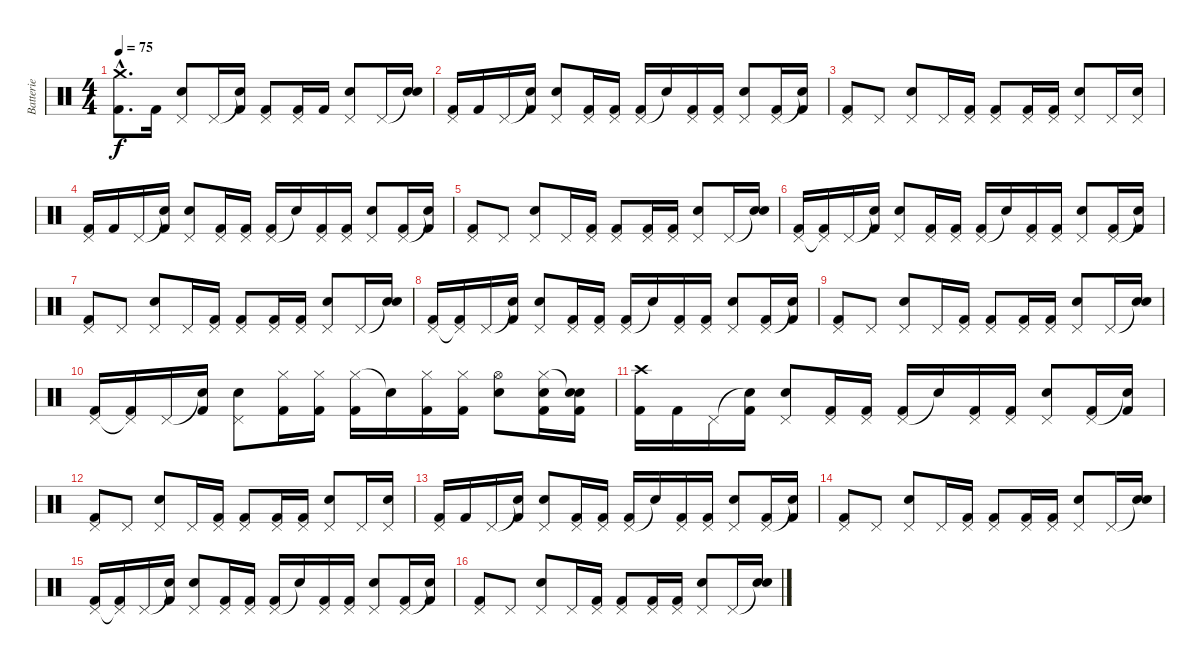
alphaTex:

\track ("Batterie" "Batterie") {instrument percussion}
\staff {score}
\articulation defaults
\ts (4 4)
\tempo 75
\clef neutral
\ks c
("Crash medium (hit)"{hac} "Kick (hit) 2"{hac}).8{d dy f} "Kick (hit) 2".16 ("Pedal Hi-Hat (hit)" "Electric Snare (hit)").8 "Pedal Hi-Hat (hit)".16 ("Snare (hit)"{t} "Kick (hit) 2").16 ("Pedal Hi-Hat (hit)" "Kick (hit) 2").8 ("Pedal Hi-Hat (hit)" "Kick (hit) 2").16 "Kick (hit) 2".16 ("Pedal Hi-Hat (hit)" "Electric Snare (hit)").8 "Pedal Hi-Hat (hit)".16 ("Snare (hit)"{t} "Electric Snare (hit)").16 |
("Pedal Hi-Hat (hit)" "Kick (hit) 2").16 "Kick (hit) 2".16 "Pedal Hi-Hat (hit)".16 ("Snare (hit)"{t} "Kick (hit) 2").16 ("Pedal Hi-Hat (hit)" "Electric Snare (hit)").8 ("Pedal Hi-Hat (hit)" "Kick (hit) 2").16 ("Pedal Hi-Hat (hit)" "Kick (hit) 2").16 ("Pedal Hi-Hat (hit)" "Kick (hit) 2").16 "Snare (hit)"{t}.16 ("Pedal Hi-Hat (hit)" "Kick (hit) 2").16 ("Pedal Hi-Hat (hit)" "Kick (hit) 2").16 ("Pedal Hi-Hat (hit)" "Electric Snare (hit)").8 ("Pedal Hi-Hat (hit)" "Kick (hit) 2").16 ("Snare (hit)"{t} "Kick (hit) 2").16 |
("Pedal Hi-Hat (hit)" "Kick (hit) 2").8 "Pedal Hi-Hat (hit)".8 ("Pedal Hi-Hat (hit)" "Electric Snare (hit)").8 "Pedal Hi-Hat (hit)".16 ("Pedal Hi-Hat (hit)" "Kick (hit) 2").16 ("Pedal Hi-Hat (hit)" "Kick (hit) 2").8 ("Pedal Hi-Hat (hit)" "Kick (hit) 2").16 ("Pedal Hi-Hat (hit)" "Kick (hit) 2").16 ("Pedal Hi-Hat (hit)" "Electric Snare (hit)").8 "Pedal Hi-Hat (hit)".16 ("Pedal Hi-Hat (hit)" "Electric Snare (hit)").16 |
("Pedal Hi-Hat (hit)" "Kick (hit) 2").16 "Kick (hit) 2".16 "Pedal Hi-Hat (hit)".16 ("Snare (hit)"{t} "Kick (hit) 2").16 ("Pedal Hi-Hat (hit)" "Electric Snare (hit)").8 ("Pedal Hi-Hat (hit)" "Kick (hit) 2").16 ("Pedal Hi-Hat (hit)" "Kick (hit) 2").16 ("Pedal Hi-Hat (hit)" "Kick (hit) 2").16 "Snare (hit)"{t}.16 ("Pedal Hi-Hat (hit)" "Kick (hit) 2").16 ("Pedal Hi-Hat (hit)" "Kick (hit) 2").16 ("Pedal Hi-Hat (hit)" "Electric Snare (hit)").8 ("Pedal Hi-Hat (hit)" "Kick (hit) 2").16 ("Snare (hit)"{t} "Kick (hit) 2").16 |
("Pedal Hi-Hat (hit)" "Kick (hit) 2").8 "Pedal Hi-Hat (hit)".8 ("Pedal Hi-Hat (hit)" "Electric Snare (hit)").8 "Pedal Hi-Hat (hit)".16 ("Pedal Hi-Hat (hit)" "Kick (hit) 2").16 ("Pedal Hi-Hat (hit)" "Kick (hit) 2").8 ("Pedal Hi-Hat (hit)" "Kick (hit) 2").16 ("Pedal Hi-Hat (hit)" "Kick (hit) 2").16 ("Pedal Hi-Hat (hit)" "Electric Snare (hit)").8 "Pedal Hi-Hat (hit)".16 ("Snare (hit)"{t} "Electric Snare (hit)").16 |
("Pedal Hi-Hat (hit)" "Kick (hit) 2").16 ("Pedal Hi-Hat (hit)"{t} "Kick (hit) 2").16 "Pedal Hi-Hat (hit)".16 ("Snare (hit)"{t} "Kick (hit) 2").16 ("Pedal Hi-Hat (hit)" "Electric Snare (hit)").8 ("Pedal Hi-Hat (hit)" "Kick (hit) 2").16 ("Pedal Hi-Hat (hit)" "Kick (hit) 2").16 ("Pedal Hi-Hat (hit)" "Kick (hit) 2").16 "Snare (hit)"{t}.16 ("Pedal Hi-Hat (hit)" "Kick (hit) 2").16 ("Pedal Hi-Hat (hit)" "Kick (hit) 2").16 ("Pedal Hi-Hat (hit)" "Electric Snare (hit)").8 ("Pedal Hi-Hat (hit)" "Kick (hit) 2").16 ("Snare (hit)"{t} "Kick (hit) 2").16 |
("Pedal Hi-Hat (hit)" "Kick (hit) 2").8 "Pedal Hi-Hat (hit)".8 ("Pedal Hi-Hat (hit)" "Electric Snare (hit)").8 "Pedal Hi-Hat (hit)".16 ("Pedal Hi-Hat (hit)" "Kick (hit) 2").16 ("Pedal Hi-Hat (hit)" "Kick (hit) 2").8 ("Pedal Hi-Hat (hit)" "Kick (hit) 2").16 ("Pedal Hi-Hat (hit)" "Kick (hit) 2").16 ("Pedal Hi-Hat (hit)" "Electric Snare (hit)").8 "Pedal Hi-Hat (hit)".16 ("Snare (hit)"{t} "Electric Snare (hit)").16 |
("Pedal Hi-Hat (hit)" "Kick (hit) 2").16 ("Pedal Hi-Hat (hit)"{t} "Kick (hit) 2").16 "Pedal Hi-Hat (hit)".16 ("Snare (hit)"{t} "Kick (hit) 2").16 ("Pedal Hi-Hat (hit)" "Electric Snare (hit)").8 ("Pedal Hi-Hat (hit)" "Kick (hit) 2").16 ("Pedal Hi-Hat (hit)" "Kick (hit) 2").16 ("Pedal Hi-Hat (hit)" "Kick (hit) 2").16 "Snare (hit)"{t}.16 ("Pedal Hi-Hat (hit)" "Kick (hit) 2").16 ("Pedal Hi-Hat (hit)" "Kick (hit) 2").16 ("Pedal Hi-Hat (hit)" "Electric Snare (hit)").8 ("Pedal Hi-Hat (hit)" "Kick (hit) 2").16 ("Snare (hit)"{t} "Kick (hit) 2").16 |
("Pedal Hi-Hat (hit)" "Kick (hit) 2").8 "Pedal Hi-Hat (hit)".8 ("Pedal Hi-Hat (hit)" "Electric Snare (hit)").8 "Pedal Hi-Hat (hit)".16 ("Pedal Hi-Hat (hit)" "Kick (hit) 2").16 ("Pedal Hi-Hat (hit)" "Kick (hit) 2").8 ("Pedal Hi-Hat (hit)" "Kick (hit) 2").16 ("Pedal Hi-Hat (hit)" "Kick (hit) 2").16 ("Pedal Hi-Hat (hit)" "Electric Snare (hit)").8 "Pedal Hi-Hat (hit)".16 ("Snare (hit)"{t} "Electric Snare (hit)").16 |
("Pedal Hi-Hat (hit)" "Kick (hit) 2").16 ("Pedal Hi-Hat (hit)"{t} "Kick (hit) 2").16 "Pedal Hi-Hat (hit)".16 ("Snare (hit)"{t} "Kick (hit) 2").16 ("Pedal Hi-Hat (hit)" "Electric Snare (hit)").8 ("Hi-Hat (closed)" "Kick (hit) 2").16 ("Hi-Hat (closed)" "Kick (hit) 2").16 ("Hi-Hat (closed)" "Kick (hit) 2").16 "Snare (hit)"{t}.16 ("Hi-Hat (closed)" "Kick (hit) 2").16 ("Hi-Hat (closed)" "Kick (hit) 2").16 ("Hi-Hat (open)" "Electric Snare (hit)").8 ("Hi-Hat (closed)" "Electric Snare (hit)" "Kick (hit) 2").16 ("Snare (hit)"{t} "Electric Snare (hit)" "Kick (hit) 2").16 |
("Crash high (hit)" "Kick (hit) 2").16 "Kick (hit) 2".16 "Pedal Hi-Hat (hit)".16 ("Snare (hit)"{t} "Kick (hit) 2").16 ("Pedal Hi-Hat (hit)" "Electric Snare (hit)").8 ("Pedal Hi-Hat (hit)" "Kick (hit) 2").16 ("Pedal Hi-Hat (hit)" "Kick (hit) 2").16 ("Pedal Hi-Hat (hit)" "Kick (hit) 2").16 "Snare (hit)"{t}.16 ("Pedal Hi-Hat (hit)" "Kick (hit) 2").16 ("Pedal Hi-Hat (hit)" "Kick (hit) 2").16 ("Pedal Hi-Hat (hit)" "Electric Snare (hit)").8 ("Pedal Hi-Hat (hit)" "Kick (hit) 2").16 ("Snare (hit)"{t} "Kick (hit) 2").16 |
("Pedal Hi-Hat (hit)" "Kick (hit) 2").8 "Pedal Hi-Hat (hit)".8 ("Pedal Hi-Hat (hit)" "Electric Snare (hit)").8 "Pedal Hi-Hat (hit)".16 ("Pedal Hi-Hat (hit)" "Kick (hit) 2").16 ("Pedal Hi-Hat (hit)" "Kick (hit) 2").8 ("Pedal Hi-Hat (hit)" "Kick (hit) 2").16 ("Pedal Hi-Hat (hit)" "Kick (hit) 2").16 ("Pedal Hi-Hat (hit)" "Electric Snare (hit)").8 "Pedal Hi-Hat (hit)".16 ("Pedal Hi-Hat (hit)" "Electric Snare (hit)").16 |
("Pedal Hi-Hat (hit)" "Kick (hit) 2").16 "Kick (hit) 2".16 "Pedal Hi-Hat (hit)".16 ("Snare (hit)"{t} "Kick (hit) 2").16 ("Pedal Hi-Hat (hit)" "Electric Snare (hit)").8 ("Pedal Hi-Hat (hit)" "Kick (hit) 2").16 ("Pedal Hi-Hat (hit)" "Kick (hit) 2").16 ("Pedal Hi-Hat (hit)" "Kick (hit) 2").16 "Snare (hit)"{t}.16 ("Pedal Hi-Hat (hit)" "Kick (hit) 2").16 ("Pedal Hi-Hat (hit)" "Kick (hit) 2").16 ("Pedal Hi-Hat (hit)" "Electric Snare (hit)").8 ("Pedal Hi-Hat (hit)" "Kick (hit) 2").16 ("Snare (hit)"{t} "Kick (hit) 2").16 |
("Pedal Hi-Hat (hit)" "Kick (hit) 2").8 "Pedal Hi-Hat (hit)".8 ("Pedal Hi-Hat (hit)" "Electric Snare (hit)").8 "Pedal Hi-Hat (hit)".16 ("Pedal Hi-Hat (hit)" "Kick (hit) 2").16 ("Pedal Hi-Hat (hit)" "Kick (hit) 2").8 ("Pedal Hi-Hat (hit)" "Kick (hit) 2").16 ("Pedal Hi-Hat (hit)" "Kick (hit) 2").16 ("Pedal Hi-Hat (hit)" "Electric Snare (hit)").8 "Pedal Hi-Hat (hit)".16 ("Snare (hit)"{t} "Electric Snare (hit)").16 |
("Pedal Hi-Hat (hit)" "Kick (hit) 2").16 ("Pedal Hi-Hat (hit)"{t} "Kick (hit) 2").16 "Pedal Hi-Hat (hit)".16 ("Snare (hit)"{t} "Kick (hit) 2").16 ("Pedal Hi-Hat (hit)" "Electric Snare (hit)").8 ("Pedal Hi-Hat (hit)" "Kick (hit) 2").16 ("Pedal Hi-Hat (hit)" "Kick (hit) 2").16 ("Pedal Hi-Hat (hit)" "Kick (hit) 2").16 "Snare (hit)"{t}.16 ("Pedal Hi-Hat (hit)" "Kick (hit) 2").16 ("Pedal Hi-Hat (hit)" "Kick (hit) 2").16 ("Pedal Hi-Hat (hit)" "Electric Snare (hit)").8 ("Pedal Hi-Hat (hit)" "Kick (hit) 2").16 ("Snare (hit)"{t} "Kick (hit) 2").16 |
("Pedal Hi-Hat (hit)" "Kick (hit) 2").8 "Pedal Hi-Hat (hit)".8 ("Pedal Hi-Hat (hit)" "Electric Snare (hit)").8 "Pedal Hi-Hat (hit)".16 ("Pedal Hi-Hat (hit)" "Kick (hit) 2").16 ("Pedal Hi-Hat (hit)" "Kick (hit) 2").8 ("Pedal Hi-Hat (hit)" "Kick (hit) 2").16 ("Pedal Hi-Hat (hit)" "Kick (hit) 2").16 ("Pedal Hi-Hat (hit)" "Electric Snare (hit)").8 "Pedal Hi-Hat (hit)".16 ("Snare (hit)"{t} "Electric Snare (hit)").16
